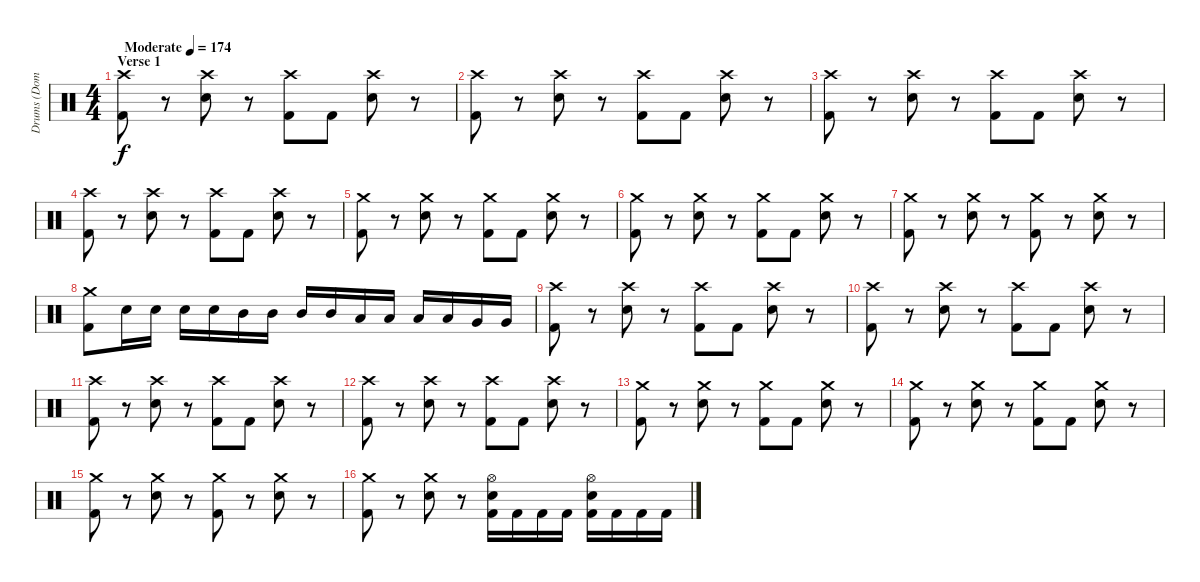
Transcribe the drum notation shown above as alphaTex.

\track ("Drums (Dominik)" "Drums (Dom") {instrument percussion}
\staff {score}
\articulation defaults
\ts (4 4)
\section ("" "Verse 1")
\tempo (174 "Moderate")
\clef neutral
\ks c
("Crash high (hit)" "Kick (hit) 2").8{dy f} r.8 ("Crash high (hit)" "Electric Snare (hit)").8 r.8 ("Crash high (hit)" "Kick (hit) 2").8 "Kick (hit) 2".8 ("Crash high (hit)" "Electric Snare (hit)").8 r.8 |
("Crash high (hit)" "Kick (hit) 2").8 r.8 ("Crash high (hit)" "Electric Snare (hit)").8 r.8 ("Crash high (hit)" "Kick (hit) 2").8 "Kick (hit) 2".8 ("Crash high (hit)" "Electric Snare (hit)").8 r.8 |
("Crash high (hit)" "Kick (hit) 2").8 r.8 ("Crash high (hit)" "Electric Snare (hit)").8 r.8 ("Crash high (hit)" "Kick (hit) 2").8 "Kick (hit) 2".8 ("Crash high (hit)" "Electric Snare (hit)").8 r.8 |
("Crash high (hit)" "Kick (hit) 2").8 r.8 ("Crash high (hit)" "Electric Snare (hit)").8 r.8 ("Crash high (hit)" "Kick (hit) 2").8 "Kick (hit) 2".8 ("Crash high (hit)" "Electric Snare (hit)").8 r.8 |
("Crash medium (hit)" "Kick (hit) 2").8 r.8 ("Crash medium (hit)" "Electric Snare (hit)").8 r.8 ("Crash medium (hit)" "Kick (hit) 2").8 "Kick (hit) 2".8 ("Crash medium (hit)" "Electric Snare (hit)").8 r.8 |
("Crash medium (hit)" "Kick (hit) 2").8 r.8 ("Crash medium (hit)" "Electric Snare (hit)").8 r.8 ("Crash medium (hit)" "Kick (hit) 2").8 "Kick (hit) 2".8 ("Crash medium (hit)" "Electric Snare (hit)").8 r.8 |
("Crash medium (hit)" "Kick (hit) 2").8 r.8 ("Crash medium (hit)" "Electric Snare (hit)").8 r.8 ("Crash medium (hit)" "Kick (hit) 2").8 r.8 ("Crash medium (hit)" "Electric Snare (hit)").8 r.8 |
("Crash medium (hit)" "Kick (hit) 2").8 "Electric Snare (hit)".16 "Electric Snare (hit)".16 "Electric Snare (hit)".16 "Electric Snare (hit)".16 "Mid Tom (hit)".16 "Mid Tom (hit)".16 "Mid Tom (hit)".16 "Mid Tom (hit)".16 "Low Tom (hit)".16 "Low Tom (hit)".16 "Low Tom (hit)".16 "Low Tom (hit)".16 "Very Low Tom (hit)".16 "Very Low Tom (hit)".16 |
("Crash high (hit)" "Kick (hit) 2").8 r.8 ("Crash high (hit)" "Electric Snare (hit)").8 r.8 ("Crash high (hit)" "Kick (hit) 2").8 "Kick (hit) 2".8 ("Crash high (hit)" "Electric Snare (hit)").8 r.8 |
("Crash high (hit)" "Kick (hit) 2").8 r.8 ("Crash high (hit)" "Electric Snare (hit)").8 r.8 ("Crash high (hit)" "Kick (hit) 2").8 "Kick (hit) 2".8 ("Crash high (hit)" "Electric Snare (hit)").8 r.8 |
("Crash high (hit)" "Kick (hit) 2").8 r.8 ("Crash high (hit)" "Electric Snare (hit)").8 r.8 ("Crash high (hit)" "Kick (hit) 2").8 "Kick (hit) 2".8 ("Crash high (hit)" "Electric Snare (hit)").8 r.8 |
("Crash high (hit)" "Kick (hit) 2").8 r.8 ("Crash high (hit)" "Electric Snare (hit)").8 r.8 ("Crash high (hit)" "Kick (hit) 2").8 "Kick (hit) 2".8 ("Crash high (hit)" "Electric Snare (hit)").8 r.8 |
("Crash medium (hit)" "Kick (hit) 2").8 r.8 ("Crash medium (hit)" "Electric Snare (hit)").8 r.8 ("Crash medium (hit)" "Kick (hit) 2").8 "Kick (hit) 2".8 ("Crash medium (hit)" "Electric Snare (hit)").8 r.8 |
("Crash medium (hit)" "Kick (hit) 2").8 r.8 ("Crash medium (hit)" "Electric Snare (hit)").8 r.8 ("Crash medium (hit)" "Kick (hit) 2").8 "Kick (hit) 2".8 ("Crash medium (hit)" "Electric Snare (hit)").8 r.8 |
("Crash medium (hit)" "Kick (hit) 2").8 r.8 ("Crash medium (hit)" "Electric Snare (hit)").8 r.8 ("Crash medium (hit)" "Kick (hit) 2").8 r.8 ("Crash medium (hit)" "Electric Snare (hit)").8 r.8 |
("Crash medium (hit)" "Kick (hit) 2").8 r.8 ("Crash medium (hit)" "Electric Snare (hit)").8 r.8 ("Hi-Hat (open)" "Electric Snare (hit)" "Kick (hit) 2").16 "Kick (hit) 2".16 "Kick (hit) 2".16 "Kick (hit) 2".16 ("Hi-Hat (open)" "Electric Snare (hit)" "Kick (hit) 2").16 "Kick (hit) 2".16 "Kick (hit) 2".16 "Kick (hit) 2".16
